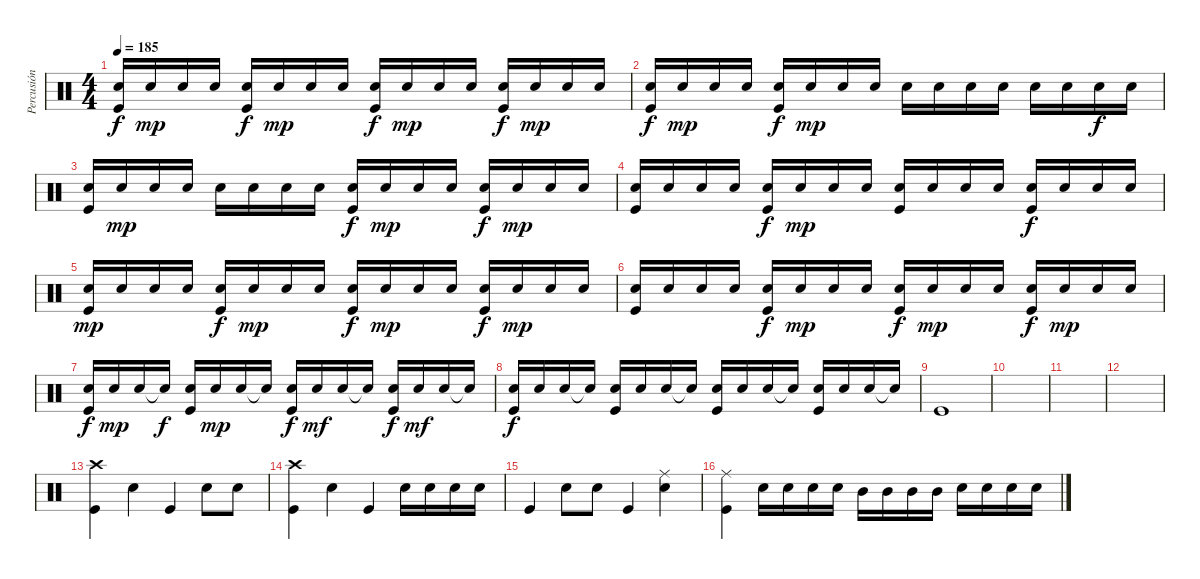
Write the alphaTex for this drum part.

\track ("Percusión" "Percusión") {instrument percussion}
\staff {score}
\articulation defaults
\ts (4 4)
\tempo 185
\clef neutral
\ks c
("Snare (hit) 2" "Kick (hit)").16{dy f} "Snare (hit) 2".16{dy mp} "Snare (hit) 2".16 "Snare (hit) 2".16 ("Snare (hit) 2" "Kick (hit)").16{dy f} "Snare (hit) 2".16{dy mp} "Snare (hit) 2".16 "Snare (hit) 2".16 ("Snare (hit) 2" "Kick (hit)").16{dy f} "Snare (hit) 2".16{dy mp} "Snare (hit) 2".16 "Snare (hit) 2".16 ("Snare (hit) 2" "Kick (hit)").16{dy f} "Snare (hit) 2".16{dy mp} "Snare (hit) 2".16 "Snare (hit) 2".16 |
("Snare (hit) 2" "Kick (hit)").16{dy f} "Snare (hit) 2".16{dy mp} "Snare (hit) 2".16 "Snare (hit) 2".16 ("Snare (hit) 2" "Kick (hit)").16{dy f} "Snare (hit) 2".16{dy mp} "Snare (hit) 2".16 "Snare (hit) 2".16 "Snare (hit) 2".16 "Snare (hit) 2".16 "Snare (hit) 2".16 "Snare (hit) 2".16 "Snare (hit) 2".16 "Snare (hit) 2".16 "Snare (hit) 2".16{dy f} "Snare (hit) 2".16 |
("Snare (hit) 2" "Kick (hit)").16 "Snare (hit) 2".16{dy mp} "Snare (hit) 2".16 "Snare (hit) 2".16 "Snare (hit) 2".16 "Snare (hit) 2".16 "Snare (hit) 2".16 "Snare (hit) 2".16 ("Snare (hit) 2" "Kick (hit)").16{dy f} "Snare (hit) 2".16{dy mp} "Snare (hit) 2".16 "Snare (hit) 2".16 ("Snare (hit) 2" "Kick (hit)").16{dy f} "Snare (hit) 2".16{dy mp} "Snare (hit) 2".16 "Snare (hit) 2".16 |
("Snare (hit) 2" "Kick (hit)").16 "Snare (hit) 2".16 "Snare (hit) 2".16 "Snare (hit) 2".16 ("Snare (hit) 2" "Kick (hit)").16{dy f} "Snare (hit) 2".16{dy mp} "Snare (hit) 2".16 "Snare (hit) 2".16 ("Snare (hit) 2" "Kick (hit)").16 "Snare (hit) 2".16 "Snare (hit) 2".16 "Snare (hit) 2".16 ("Snare (hit) 2" "Kick (hit)").16{dy f} "Snare (hit) 2".16 "Snare (hit) 2".16 "Snare (hit) 2".16 |
("Snare (hit) 2" "Kick (hit)").16{dy mp} "Snare (hit) 2".16 "Snare (hit) 2".16 "Snare (hit) 2".16 ("Snare (hit) 2" "Kick (hit)").16{dy f} "Snare (hit) 2".16{dy mp} "Snare (hit) 2".16 "Snare (hit) 2".16 ("Snare (hit) 2" "Kick (hit)").16{dy f} "Snare (hit) 2".16{dy mp} "Snare (hit) 2".16 "Snare (hit) 2".16 ("Snare (hit) 2" "Kick (hit)").16{dy f} "Snare (hit) 2".16{dy mp} "Snare (hit) 2".16 "Snare (hit) 2".16 |
("Snare (hit) 2" "Kick (hit)").16 "Snare (hit) 2".16 "Snare (hit) 2".16 "Snare (hit) 2".16 ("Snare (hit) 2" "Kick (hit)").16{dy f} "Snare (hit) 2".16{dy mp} "Snare (hit) 2".16 "Snare (hit) 2".16 ("Snare (hit) 2" "Kick (hit)").16{dy f} "Snare (hit) 2".16{dy mp} "Snare (hit) 2".16 "Snare (hit) 2".16 ("Snare (hit) 2" "Kick (hit)").16{dy f} "Snare (hit) 2".16{dy mp} "Snare (hit) 2".16 "Snare (hit) 2".16 |
("Snare (hit) 2" "Kick (hit)").16{dy f} "Snare (hit) 2".16{dy mp} "Snare (hit) 2".16 "Snare (hit) 2"{t}.16{dy f} ("Snare (hit) 2" "Kick (hit)").16 "Snare (hit) 2".16{dy mp} "Snare (hit) 2".16 "Snare (hit) 2"{t}.16 ("Snare (hit) 2" "Kick (hit)").16{dy f} "Snare (hit) 2".16{dy mf} "Snare (hit) 2".16 "Snare (hit) 2"{t}.16 ("Snare (hit) 2" "Kick (hit)").16{dy f} "Snare (hit) 2".16{dy mf} "Snare (hit) 2".16 "Snare (hit) 2"{t}.16 |
("Snare (hit) 2" "Kick (hit)").16{dy f} "Snare (hit) 2".16 "Snare (hit) 2".16 "Snare (hit) 2"{t}.16 ("Snare (hit) 2" "Kick (hit)").16 "Snare (hit) 2".16 "Snare (hit) 2".16 "Snare (hit) 2"{t}.16 ("Snare (hit) 2" "Kick (hit)").16 "Snare (hit) 2".16 "Snare (hit) 2".16 "Snare (hit) 2"{t}.16 ("Snare (hit) 2" "Kick (hit)").16 "Snare (hit) 2".16 "Snare (hit) 2".16 "Snare (hit) 2"{t}.16 |
"Kick (hit)".1 |
|
|
|
("Kick (hit)" "Crash high (hit)").4 "Snare (hit) 2".4 "Kick (hit)".4 "Snare (hit) 2".8 "Snare (hit) 2".8 |
("Kick (hit)" "Crash high (hit)").4 "Snare (hit) 2".4 "Kick (hit)".4 "Snare (hit) 2".16 "Snare (hit) 2".16 "Snare (hit) 2".16 "Snare (hit) 2".16 |
"Kick (hit)".4 "Snare (hit) 2".8 "Snare (hit) 2".8 "Kick (hit)".4 ("Snare (hit) 2" "Ride (middle)").4 |
("Kick (hit)" "Ride (middle)").4 "Snare (hit) 2".16 "Snare (hit) 2".16 "Snare (hit) 2".16 "Snare (hit) 2".16 "Mid Tom (hit)".16 "Mid Tom (hit)".16 "Mid Tom (hit)".16 "Mid Tom (hit)".16 "Snare (hit) 2".16 "Snare (hit) 2".16 "Snare (hit) 2".16 "Snare (hit) 2".16
